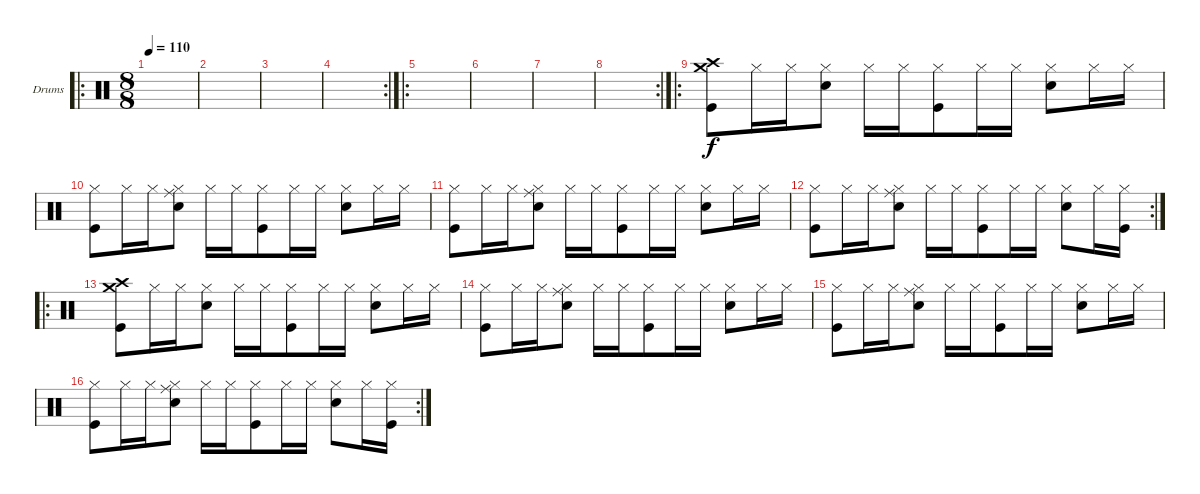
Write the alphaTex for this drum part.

\bracketExtendMode groupsimilarinstruments
\firstSystemTrackNameOrientation horizontal
\otherSystemsTrackNameOrientation horizontal
\track ("Сеня(Drumkit)" "Drums") {instrument percussion}
\staff {score}
\articulation defaults
\ro
\ts (8 8)
\tempo 110
\clef neutral
\ks c
|
|
|
\rc 2
|
\ro
|
|
|
\rc 2
|
\ro
("Kick (hit)" "Crash high (hit)" "Crash medium (hit)").8 "Hi-Hat (closed)".16 "Hi-Hat (closed)".16 ("Hi-Hat (closed)" "Snare (hit) 2").8 "Hi-Hat (closed)".16 "Hi-Hat (closed)".16 ("Hi-Hat (closed)" "Kick (hit)").8 "Hi-Hat (closed)".16 "Hi-Hat (closed)".16 ("Hi-Hat (closed)" "Snare (hit) 2").8 "Hi-Hat (closed)".16 "Hi-Hat (closed)".16 |
("Kick (hit)" "Hi-Hat (closed)").8 "Hi-Hat (closed)".16 "Hi-Hat (closed)".16 ("Hi-Hat (closed)" "Ride (middle)" "Snare (hit) 2").8 "Hi-Hat (closed)".16 "Hi-Hat (closed)".16 ("Kick (hit)" "Hi-Hat (closed)").8 "Hi-Hat (closed)".16 "Hi-Hat (closed)".16 ("Snare (hit) 2" "Hi-Hat (closed)").8 "Hi-Hat (closed)".16 "Hi-Hat (closed)".16 |
("Kick (hit)" "Hi-Hat (closed)").8 "Hi-Hat (closed)".16 "Hi-Hat (closed)".16 ("Hi-Hat (closed)" "Snare (hit) 2" "Ride (middle)").8 "Hi-Hat (closed)".16 "Hi-Hat (closed)".16 ("Kick (hit)" "Hi-Hat (closed)").8 "Hi-Hat (closed)".16 "Hi-Hat (closed)".16 ("Snare (hit) 2" "Hi-Hat (closed)").8 "Hi-Hat (closed)".16 "Hi-Hat (closed)".16 |
\rc 2
("Kick (hit)" "Hi-Hat (closed)").8 "Hi-Hat (closed)".16 "Hi-Hat (closed)".16 ("Hi-Hat (closed)" "Snare (hit) 2" "Ride (middle)").8 "Hi-Hat (closed)".16 "Hi-Hat (closed)".16 ("Kick (hit)" "Hi-Hat (closed)").8 "Hi-Hat (closed)".16 "Hi-Hat (closed)".16 ("Snare (hit) 2" "Hi-Hat (closed)").8 "Hi-Hat (closed)".16 ("Kick (hit)" "Hi-Hat (closed)").16 |
\ro
("Kick (hit)" "Crash high (hit)" "Crash medium (hit)").8 "Hi-Hat (closed)".16 "Hi-Hat (closed)".16 ("Hi-Hat (closed)" "Snare (hit) 2").8 "Hi-Hat (closed)".16 "Hi-Hat (closed)".16 ("Hi-Hat (closed)" "Kick (hit)").8 "Hi-Hat (closed)".16 "Hi-Hat (closed)".16 ("Hi-Hat (closed)" "Snare (hit) 2").8 "Hi-Hat (closed)".16 "Hi-Hat (closed)".16 |
("Kick (hit)" "Hi-Hat (closed)").8 "Hi-Hat (closed)".16 "Hi-Hat (closed)".16 ("Hi-Hat (closed)" "Ride (middle)" "Snare (hit) 2").8 "Hi-Hat (closed)".16 "Hi-Hat (closed)".16 ("Kick (hit)" "Hi-Hat (closed)").8 "Hi-Hat (closed)".16 "Hi-Hat (closed)".16 ("Snare (hit) 2" "Hi-Hat (closed)").8 "Hi-Hat (closed)".16 "Hi-Hat (closed)".16 |
("Kick (hit)" "Hi-Hat (closed)").8 "Hi-Hat (closed)".16 "Hi-Hat (closed)".16 ("Hi-Hat (closed)" "Snare (hit) 2" "Ride (middle)").8 "Hi-Hat (closed)".16 "Hi-Hat (closed)".16 ("Kick (hit)" "Hi-Hat (closed)").8 "Hi-Hat (closed)".16 "Hi-Hat (closed)".16 ("Snare (hit) 2" "Hi-Hat (closed)").8 "Hi-Hat (closed)".16 "Hi-Hat (closed)".16 |
\rc 2
("Kick (hit)" "Hi-Hat (closed)").8 "Hi-Hat (closed)".16 "Hi-Hat (closed)".16 ("Hi-Hat (closed)" "Snare (hit) 2" "Ride (middle)").8 "Hi-Hat (closed)".16 "Hi-Hat (closed)".16 ("Kick (hit)" "Hi-Hat (closed)").8 "Hi-Hat (closed)".16 "Hi-Hat (closed)".16 ("Snare (hit) 2" "Hi-Hat (closed)").8 "Hi-Hat (closed)".16 ("Kick (hit)" "Hi-Hat (closed)").16
